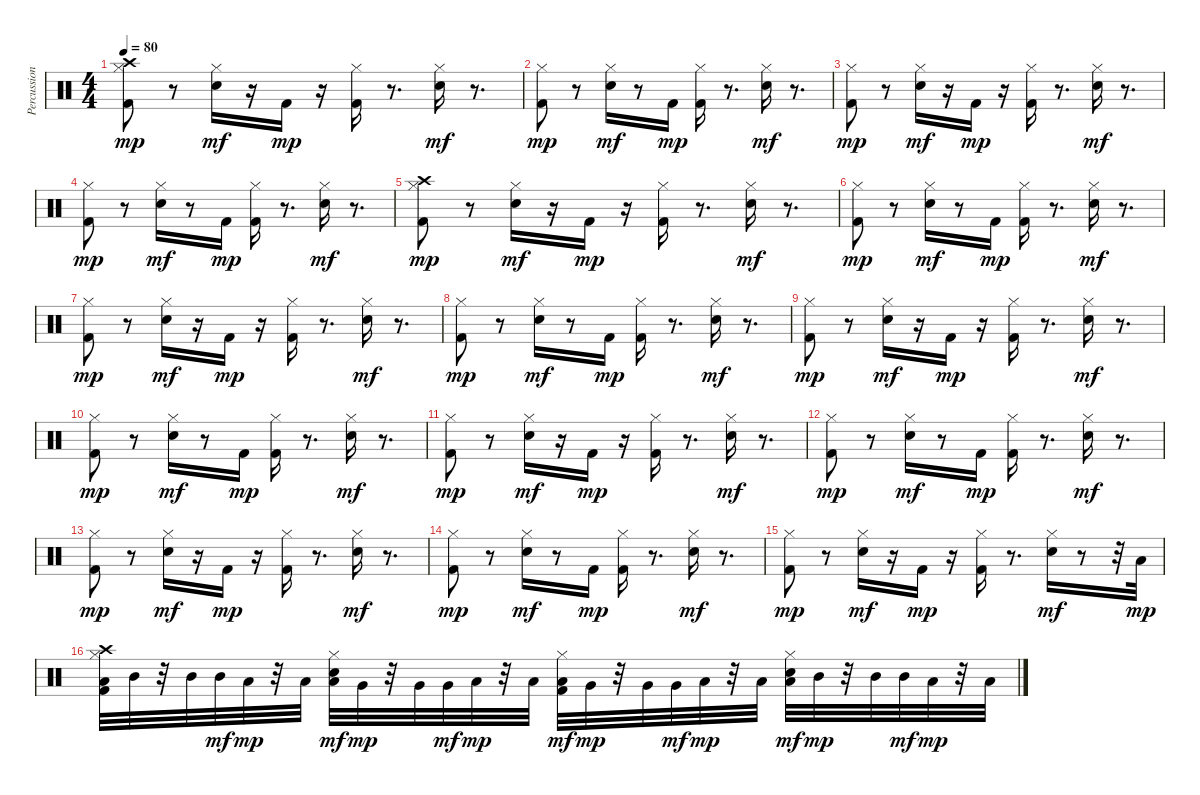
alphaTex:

\track ("Percussions" "Percussion") {instrument percussion}
\staff {score}
\articulation defaults
\ts (4 4)
\tempo 80
\clef neutral
\ks c
("Hi-Hat (closed)" "Kick (hit) 2" "Crash high (hit)").8{dy mp} r.8 ("Hi-Hat (closed)" "Snare (hit) 2").16{dy mf} r.16 "Kick (hit) 2".16{dy mp} r.16 ("Hi-Hat (closed)" "Kick (hit) 2").16 r.8{d} ("Hi-Hat (closed)" "Snare (hit) 2").16{dy mf} r.8{d} |
("Hi-Hat (closed)" "Kick (hit) 2").8{dy mp} r.8 ("Hi-Hat (closed)" "Snare (hit) 2").16{dy mf} r.8 "Kick (hit) 2".16{dy mp} ("Hi-Hat (closed)" "Kick (hit) 2").16 r.8{d} ("Hi-Hat (closed)" "Snare (hit) 2").16{dy mf} r.8{d} |
("Hi-Hat (closed)" "Kick (hit) 2").8{dy mp} r.8 ("Hi-Hat (closed)" "Snare (hit) 2").16{dy mf} r.16 "Kick (hit) 2".16{dy mp} r.16 ("Hi-Hat (closed)" "Kick (hit) 2").16 r.8{d} ("Hi-Hat (closed)" "Snare (hit) 2").16{dy mf} r.8{d} |
("Hi-Hat (closed)" "Kick (hit) 2").8{dy mp} r.8 ("Hi-Hat (closed)" "Snare (hit) 2").16{dy mf} r.8 "Kick (hit) 2".16{dy mp} ("Hi-Hat (closed)" "Kick (hit) 2").16 r.8{d} ("Hi-Hat (closed)" "Snare (hit) 2").16{dy mf} r.8{d} |
("Hi-Hat (closed)" "Kick (hit) 2" "Crash high (hit)").8{dy mp} r.8 ("Hi-Hat (closed)" "Snare (hit) 2").16{dy mf} r.16 "Kick (hit) 2".16{dy mp} r.16 ("Hi-Hat (closed)" "Kick (hit) 2").16 r.8{d} ("Hi-Hat (closed)" "Snare (hit) 2").16{dy mf} r.8{d} |
("Hi-Hat (closed)" "Kick (hit) 2").8{dy mp} r.8 ("Hi-Hat (closed)" "Snare (hit) 2").16{dy mf} r.8 "Kick (hit) 2".16{dy mp} ("Hi-Hat (closed)" "Kick (hit) 2").16 r.8{d} ("Hi-Hat (closed)" "Snare (hit) 2").16{dy mf} r.8{d} |
("Hi-Hat (closed)" "Kick (hit) 2").8{dy mp} r.8 ("Hi-Hat (closed)" "Snare (hit) 2").16{dy mf} r.16 "Kick (hit) 2".16{dy mp} r.16 ("Hi-Hat (closed)" "Kick (hit) 2").16 r.8{d} ("Hi-Hat (closed)" "Snare (hit) 2").16{dy mf} r.8{d} |
("Hi-Hat (closed)" "Kick (hit) 2").8{dy mp} r.8 ("Hi-Hat (closed)" "Snare (hit) 2").16{dy mf} r.8 "Kick (hit) 2".16{dy mp} ("Hi-Hat (closed)" "Kick (hit) 2").16 r.8{d} ("Hi-Hat (closed)" "Snare (hit) 2").16{dy mf} r.8{d} |
("Hi-Hat (closed)" "Kick (hit) 2").8{dy mp} r.8 ("Hi-Hat (closed)" "Snare (hit) 2").16{dy mf} r.16 "Kick (hit) 2".16{dy mp} r.16 ("Hi-Hat (closed)" "Kick (hit) 2").16 r.8{d} ("Hi-Hat (closed)" "Snare (hit) 2").16{dy mf} r.8{d} |
("Hi-Hat (closed)" "Kick (hit) 2").8{dy mp} r.8 ("Hi-Hat (closed)" "Snare (hit) 2").16{dy mf} r.8 "Kick (hit) 2".16{dy mp} ("Hi-Hat (closed)" "Kick (hit) 2").16 r.8{d} ("Hi-Hat (closed)" "Snare (hit) 2").16{dy mf} r.8{d} |
("Hi-Hat (closed)" "Kick (hit) 2").8{dy mp} r.8 ("Hi-Hat (closed)" "Snare (hit) 2").16{dy mf} r.16 "Kick (hit) 2".16{dy mp} r.16 ("Hi-Hat (closed)" "Kick (hit) 2").16 r.8{d} ("Hi-Hat (closed)" "Snare (hit) 2").16{dy mf} r.8{d} |
("Hi-Hat (closed)" "Kick (hit) 2").8{dy mp} r.8 ("Hi-Hat (closed)" "Snare (hit) 2").16{dy mf} r.8 "Kick (hit) 2".16{dy mp} ("Hi-Hat (closed)" "Kick (hit) 2").16 r.8{d} ("Hi-Hat (closed)" "Snare (hit) 2").16{dy mf} r.8{d} |
("Hi-Hat (closed)" "Kick (hit) 2").8{dy mp} r.8 ("Hi-Hat (closed)" "Snare (hit) 2").16{dy mf} r.16 "Kick (hit) 2".16{dy mp} r.16 ("Hi-Hat (closed)" "Kick (hit) 2").16 r.8{d} ("Hi-Hat (closed)" "Snare (hit) 2").16{dy mf} r.8{d} |
("Hi-Hat (closed)" "Kick (hit) 2").8{dy mp} r.8 ("Hi-Hat (closed)" "Snare (hit) 2").16{dy mf} r.8 "Kick (hit) 2".16{dy mp} ("Hi-Hat (closed)" "Kick (hit) 2").16 r.8{d} ("Hi-Hat (closed)" "Snare (hit) 2").16{dy mf} r.8{d} |
("Hi-Hat (closed)" "Kick (hit) 2").8{dy mp} r.8 ("Hi-Hat (closed)" "Snare (hit) 2").16{dy mf} r.16 "Kick (hit) 2".16{dy mp} r.16 ("Hi-Hat (closed)" "Kick (hit) 2").16 r.8{d} ("Hi-Hat (closed)" "Snare (hit) 2").16{dy mf} r.8 r.32 "Low Tom (hit)".32{dy mp} |
("Hi-Hat (closed)" "Kick (hit) 2" "Low Tom (hit)" "Crash high (hit)").32 "Mid Tom (hit)".32 r.32 "Mid Tom (hit)".32 "Mid Tom (hit)".32{dy mf} "Low Tom (hit)".32{dy mp} r.32 "Low Tom (hit)".32 ("Hi-Hat (closed)" "Snare (hit) 2" "Low Tom (hit)").32{dy mf} "Very Low Tom (hit)".32{dy mp} r.32 "Very Low Tom (hit)".32 "Very Low Tom (hit)".32{dy mf} "Low Floor Tom (hit)".32{dy mp} r.32 "Low Floor Tom (hit)".32 ("Hi-Hat (closed)" "Kick (hit) 2" "Low Floor Tom (hit)").32{dy mf} "Very Low Tom (hit)".32{dy mp} r.32 "Very Low Tom (hit)".32 "Very Low Tom (hit)".32{dy mf} "Low Tom (hit)".32{dy mp} r.32 "Low Tom (hit)".32 ("Hi-Hat (closed)" "Snare (hit) 2" "Low Tom (hit)").32{dy mf} "Mid Tom (hit)".32{dy mp} r.32 "Mid Tom (hit)".32 "Mid Tom (hit)".32{dy mf} "Low Floor Tom (hit)".32{dy mp} r.32 "Low Floor Tom (hit)".32
